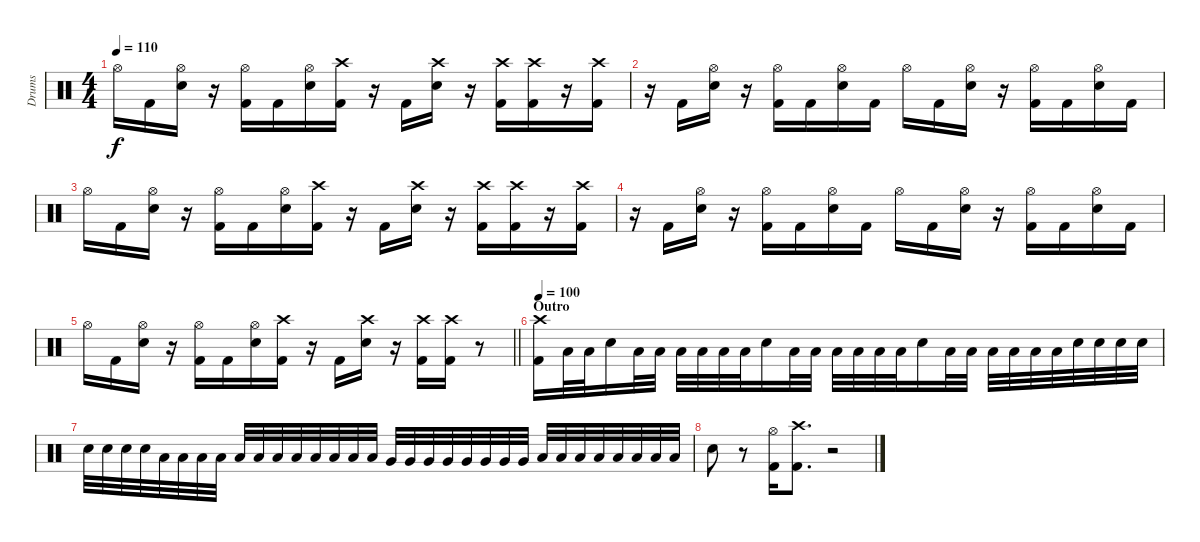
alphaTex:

\track ("Drums" "Drums") {instrument percussion}
\staff {score}
\articulation defaults
\ts (4 4)
\tempo 110
\clef neutral
\ks c "Hi-Hat (open)".16{dy f} "Kick (hit) 2".16
("Hi-Hat (open)" "Snare (hit) 2").16 r.16 ("Hi-Hat (open)" "Kick (hit) 2").16 "Kick (hit) 2".16 ("Hi-Hat (open)" "Snare (hit) 2").16 ("Crash high (hit)" "Kick (hit) 2").16 r.16 "Kick (hit) 2".16 ("Crash high (hit)" "Snare (hit) 2").16 r.16 ("Crash high (hit)" "Kick (hit) 2").16 ("Crash high (hit)" "Kick (hit) 2").16 r.16 ("Crash high (hit)" "Kick (hit) 2").16 |
r.16 "Kick (hit) 2".16 ("Hi-Hat (open)" "Snare (hit) 2").16 r.16 ("Hi-Hat (open)" "Kick (hit) 2").16 "Kick (hit) 2".16 ("Hi-Hat (open)" "Snare (hit) 2").16 "Kick (hit) 2".16 "Hi-Hat (open)".16 "Kick (hit) 2".16 ("Hi-Hat (open)" "Snare (hit) 2").16 r.16 ("Hi-Hat (open)" "Kick (hit) 2").16 "Kick (hit) 2".16 ("Hi-Hat (open)" "Snare (hit) 2").16 "Kick (hit) 2".16 |
"Hi-Hat (open)".16 "Kick (hit) 2".16 ("Hi-Hat (open)" "Snare (hit) 2").16 r.16 ("Hi-Hat (open)" "Kick (hit) 2").16 "Kick (hit) 2".16 ("Hi-Hat (open)" "Snare (hit) 2").16 ("Crash high (hit)" "Kick (hit) 2").16 r.16 "Kick (hit) 2".16 ("Crash high (hit)" "Snare (hit) 2").16 r.16 ("Crash high (hit)" "Kick (hit) 2").16 ("Crash high (hit)" "Kick (hit) 2").16 r.16 ("Crash high (hit)" "Kick (hit) 2").16 |
r.16 "Kick (hit) 2".16 ("Hi-Hat (open)" "Snare (hit) 2").16 r.16 ("Hi-Hat (open)" "Kick (hit) 2").16 "Kick (hit) 2".16 ("Hi-Hat (open)" "Snare (hit) 2").16 "Kick (hit) 2".16 "Hi-Hat (open)".16 "Kick (hit) 2".16 ("Hi-Hat (open)" "Snare (hit) 2").16 r.16 ("Hi-Hat (open)" "Kick (hit) 2").16 "Kick (hit) 2".16 ("Hi-Hat (open)" "Snare (hit) 2").16 "Kick (hit) 2".16 |
\barLineRight lightlight "Hi-Hat (open)".16 "Kick (hit) 2".16
("Hi-Hat (open)" "Snare (hit) 2").16 r.16 ("Hi-Hat (open)" "Kick (hit) 2").16 "Kick (hit) 2".16 ("Hi-Hat (open)" "Snare (hit) 2").16 ("Crash high (hit)" "Kick (hit) 2").16 r.16 "Kick (hit) 2".16 ("Crash high (hit)" "Snare (hit) 2").16 r.16 ("Crash high (hit)" "Kick (hit) 2").16 ("Crash high (hit)" "Kick (hit) 2").16 r.8 |
\section ("" "Outro")
\tempo 100
("Crash high (hit)" "Kick (hit) 2").16 "Low Tom (hit)".32 "Low Tom (hit)".32 "Snare (hit) 2".16 "Low Tom (hit)".32 "Low Tom (hit)".32 "Low Tom (hit)".32 "Low Tom (hit)".32 "Low Tom (hit)".32 "Low Tom (hit)".32 "Snare (hit) 2".16 "Low Tom (hit)".32 "Low Tom (hit)".32 "Low Tom (hit)".32 "Low Tom (hit)".32 "Low Tom (hit)".32 "Low Tom (hit)".32 "Snare (hit) 2".16 "Low Tom (hit)".32 "Low Tom (hit)".32 "Low Tom (hit)".32 "Low Tom (hit)".32 "Low Tom (hit)".32 "Low Tom (hit)".32 "Snare (hit) 2".32 "Snare (hit) 2".32 "Snare (hit) 2".32 "Snare (hit) 2".32 |
"Snare (hit) 2".32 "Snare (hit) 2".32 "Snare (hit) 2".32 "Snare (hit) 2".32 "Low Tom (hit)".32 "Low Tom (hit)".32 "Low Tom (hit)".32 "Low Tom (hit)".32 "Low Tom (hit)".32 "Low Tom (hit)".32 "Low Tom (hit)".32 "Low Tom (hit)".32 "Low Tom (hit)".32 "Low Tom (hit)".32 "Low Tom (hit)".32 "Low Tom (hit)".32 "Very Low Tom (hit)".32 "Very Low Tom (hit)".32 "Very Low Tom (hit)".32 "Very Low Tom (hit)".32 "Very Low Tom (hit)".32 "Very Low Tom (hit)".32 "Very Low Tom (hit)".32 "Very Low Tom (hit)".32 "Low Floor Tom (hit)".32 "Low Floor Tom (hit)".32 "Low Floor Tom (hit)".32 "Low Floor Tom (hit)".32 "Low Floor Tom (hit)".32 "Low Floor Tom (hit)".32 "Low Floor Tom (hit)".32 "Low Floor Tom (hit)".32 |
"Snare (hit) 2".8 r.8 ("Hi-Hat (open)" "Kick (hit) 2").16 ("Crash high (hit)" "Kick (hit) 2").8{d} r.2
